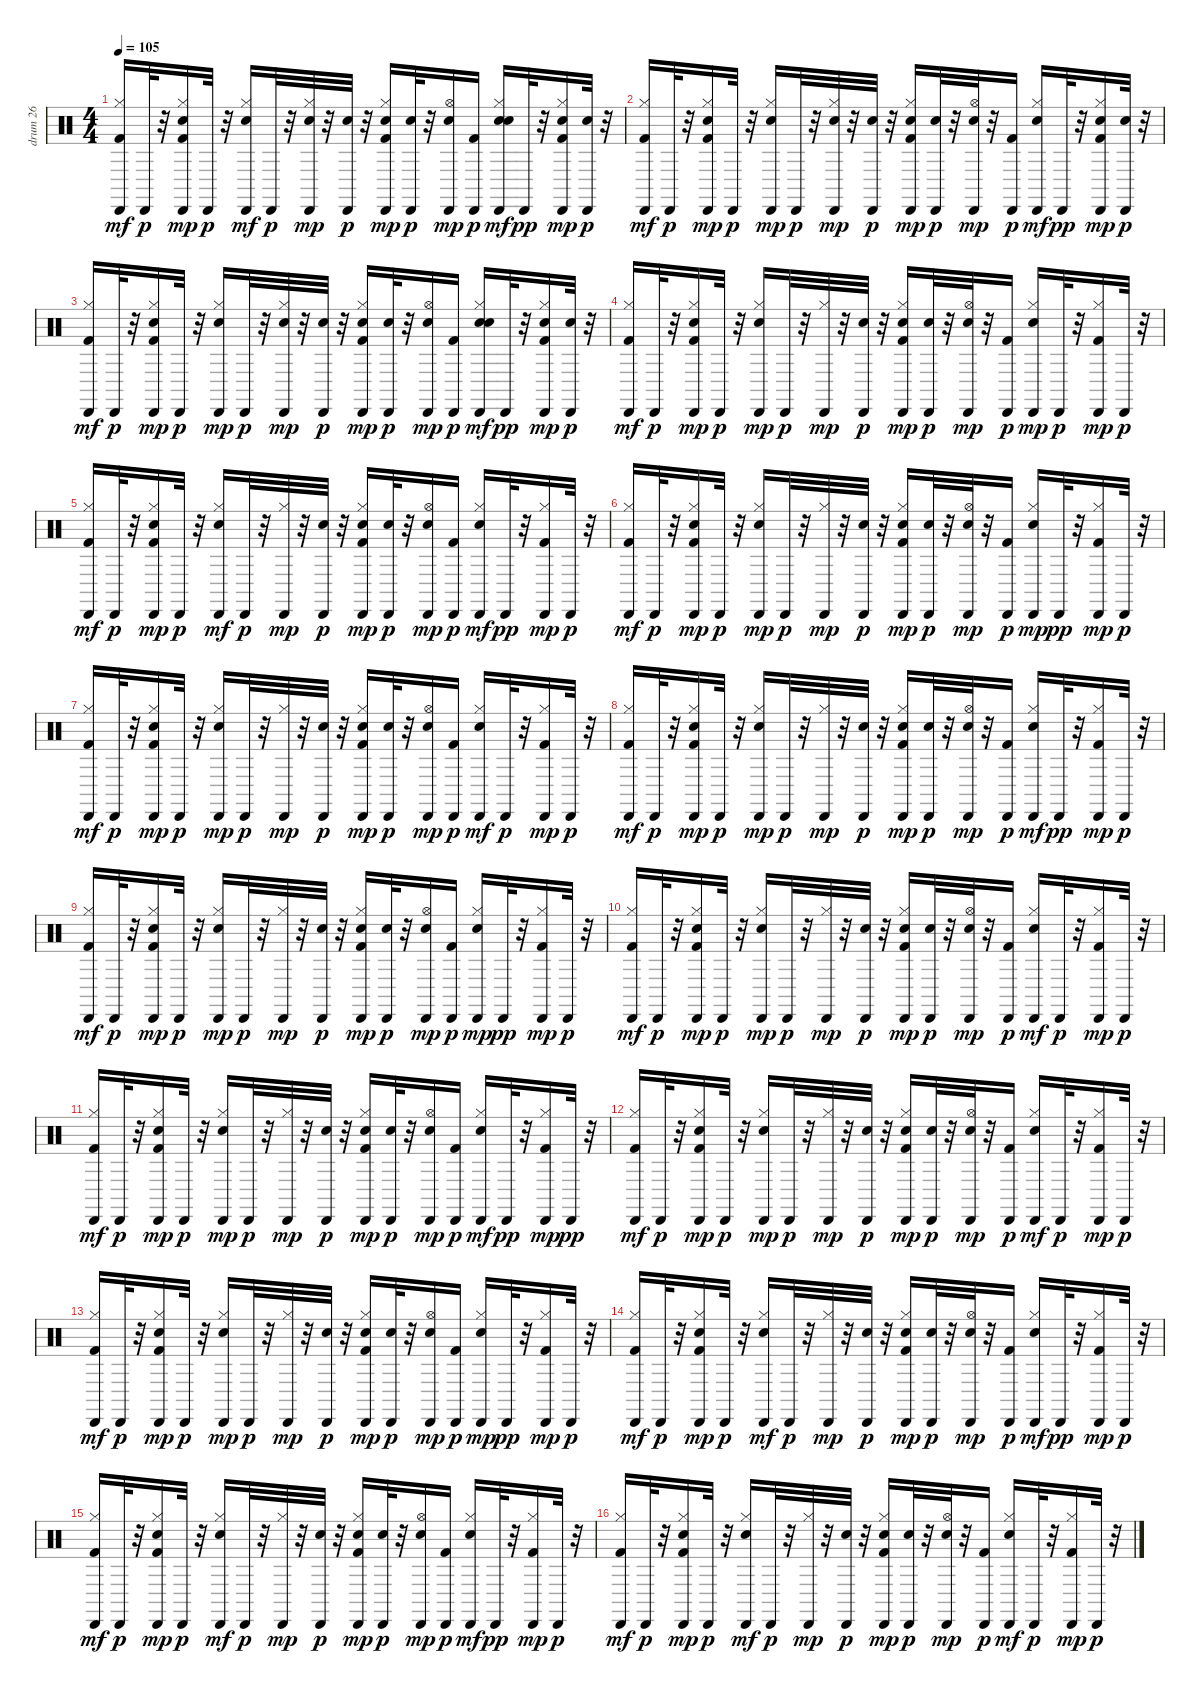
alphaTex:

\track ("drum 26" "drum 26") {instrument percussion}
\staff {score}
\articulation defaults
\ts (4 4)
\tempo 105
\clef neutral
\ks c
("Kick (hit) 2" "Hi-Hat (closed)" "Cabasa (hit)").16{dy mf} "Cabasa (hit)".32{dy p} r.32 ("Metronome (bell)" "Kick (hit) 2" "Hi-Hat (closed)" "Cabasa (hit)").16{dy mp} "Cabasa (hit)".32{dy p} r.32 ("Snare (hit) 2" "Hi-Hat (closed)" "Cabasa (hit)").16{dy mf} "Cabasa (hit)".32{dy p} r.32 ("Electric Snare (hit)" "Hi-Hat (closed)" "Cabasa (hit)").32{dy mp} r.32 ("Electric Snare (hit)" "Cabasa (hit)").32{dy p} r.32 ("Metronome (bell)" "Kick (hit) 2" "Hi-Hat (closed)" "Cabasa (hit)").16{dy mp} ("Electric Snare (hit)" "Cabasa (hit)").32{dy p} r.32 ("Electric Snare (hit)" "Hi-Hat (open)" "Cabasa (hit)").16{dy mp} ("Kick (hit) 2" "Cabasa (hit)").16{dy p} ("Snare (hit) 2" "Electric Snare (hit)" "Hi-Hat (closed)" "Cabasa (hit)").16{dy mf} "Cabasa (hit)".32{dy pp} r.32 ("Kick (hit) 2" "Electric Snare (hit)" "Hi-Hat (closed)" "Cabasa (hit)").16{dy mp} ("Electric Snare (hit)" "Cabasa (hit)").32{dy p} r.32 |
("Kick (hit) 2" "Hi-Hat (closed)" "Cabasa (hit)").16{dy mf} "Cabasa (hit)".32{dy p} r.32 ("Metronome (bell)" "Kick (hit) 2" "Hi-Hat (closed)" "Cabasa (hit)").16{dy mp} "Cabasa (hit)".32{dy p} r.32 ("Snare (hit) 2" "Hi-Hat (closed)" "Cabasa (hit)").16{dy mp} "Cabasa (hit)".32{dy p} r.32 ("Electric Snare (hit)" "Hi-Hat (closed)" "Cabasa (hit)").32{dy mp} r.32 ("Electric Snare (hit)" "Cabasa (hit)").32{dy p} r.32 ("Metronome (bell)" "Kick (hit) 2" "Hi-Hat (closed)" "Cabasa (hit)").16{dy mp} ("Electric Snare (hit)" "Cabasa (hit)").32{dy p} r.32 ("Electric Snare (hit)" "Hi-Hat (open)" "Cabasa (hit)").32{dy mp} r.32 ("Kick (hit) 2" "Cabasa (hit)").16{dy p} ("Snare (hit) 2" "Hi-Hat (closed)" "Cabasa (hit)").16{dy mf} "Cabasa (hit)".32{dy pp} r.32 ("Kick (hit) 2" "Electric Snare (hit)" "Hi-Hat (closed)" "Cabasa (hit)").16{dy mp} ("Electric Snare (hit)" "Cabasa (hit)").32{dy p} r.32 |
("Kick (hit) 2" "Hi-Hat (closed)" "Cabasa (hit)").16{dy mf} "Cabasa (hit)".32{dy p} r.32 ("Metronome (bell)" "Kick (hit) 2" "Hi-Hat (closed)" "Cabasa (hit)").16{dy mp} "Cabasa (hit)".32{dy p} r.32 ("Snare (hit) 2" "Hi-Hat (closed)" "Cabasa (hit)").16{dy mp} "Cabasa (hit)".32{dy p} r.32 ("Electric Snare (hit)" "Hi-Hat (closed)" "Cabasa (hit)").32{dy mp} r.32 ("Electric Snare (hit)" "Cabasa (hit)").32{dy p} r.32 ("Metronome (bell)" "Kick (hit) 2" "Hi-Hat (closed)" "Cabasa (hit)").16{dy mp} ("Electric Snare (hit)" "Cabasa (hit)").32{dy p} r.32 ("Electric Snare (hit)" "Hi-Hat (open)" "Cabasa (hit)").16{dy mp} ("Kick (hit) 2" "Cabasa (hit)").16{dy p} ("Snare (hit) 2" "Electric Snare (hit)" "Hi-Hat (closed)" "Cabasa (hit)").16{dy mf} "Cabasa (hit)".32{dy pp} r.32 ("Kick (hit) 2" "Electric Snare (hit)" "Hi-Hat (closed)" "Cabasa (hit)").16{dy mp} ("Electric Snare (hit)" "Cabasa (hit)").32{dy p} r.32 |
("Kick (hit) 2" "Hi-Hat (closed)" "Cabasa (hit)").16{dy mf} "Cabasa (hit)".32{dy p} r.32 ("Metronome (bell)" "Kick (hit) 2" "Hi-Hat (closed)" "Cabasa (hit)").16{dy mp} "Cabasa (hit)".32{dy p} r.32 ("Snare (hit) 2" "Hi-Hat (closed)" "Cabasa (hit)").16{dy mp} "Cabasa (hit)".32{dy p} r.32 ("Hi-Hat (closed)" "Cabasa (hit)").32{dy mp} r.32 ("Electric Snare (hit)" "Cabasa (hit)").32{dy p} r.32 ("Metronome (bell)" "Kick (hit) 2" "Hi-Hat (closed)" "Cabasa (hit)").16{dy mp} ("Electric Snare (hit)" "Cabasa (hit)").32{dy p} r.32 ("Electric Snare (hit)" "Hi-Hat (open)" "Cabasa (hit)").32{dy mp} r.32 ("Kick (hit) 2" "Cabasa (hit)").16{dy p} ("Snare (hit) 2" "Hi-Hat (closed)" "Cabasa (hit)").16{dy mp} "Cabasa (hit)".32{dy p} r.32 ("Kick (hit) 2" "Hi-Hat (closed)" "Cabasa (hit)").16{dy mp} "Cabasa (hit)".32{dy p} r.32 |
("Kick (hit) 2" "Hi-Hat (closed)" "Cabasa (hit)").16{dy mf} "Cabasa (hit)".32{dy p} r.32 ("Metronome (bell)" "Kick (hit) 2" "Hi-Hat (closed)" "Cabasa (hit)").16{dy mp} "Cabasa (hit)".32{dy p} r.32 ("Snare (hit) 2" "Hi-Hat (closed)" "Cabasa (hit)").16{dy mf} "Cabasa (hit)".32{dy p} r.32 ("Hi-Hat (closed)" "Cabasa (hit)").32{dy mp} r.32 ("Electric Snare (hit)" "Cabasa (hit)").32{dy p} r.32 ("Metronome (bell)" "Kick (hit) 2" "Hi-Hat (closed)" "Cabasa (hit)").16{dy mp} ("Electric Snare (hit)" "Cabasa (hit)").32{dy p} r.32 ("Electric Snare (hit)" "Hi-Hat (open)" "Cabasa (hit)").16{dy mp} ("Kick (hit) 2" "Cabasa (hit)").16{dy p} ("Snare (hit) 2" "Hi-Hat (closed)" "Cabasa (hit)").16{dy mf} "Cabasa (hit)".32{dy pp} r.32 ("Kick (hit) 2" "Hi-Hat (closed)" "Cabasa (hit)").16{dy mp} "Cabasa (hit)".32{dy p} r.32 |
("Kick (hit) 2" "Hi-Hat (closed)" "Cabasa (hit)").16{dy mf} "Cabasa (hit)".32{dy p} r.32 ("Metronome (bell)" "Kick (hit) 2" "Hi-Hat (closed)" "Cabasa (hit)").16{dy mp} "Cabasa (hit)".32{dy p} r.32 ("Snare (hit) 2" "Hi-Hat (closed)" "Cabasa (hit)").16{dy mp} "Cabasa (hit)".32{dy p} r.32 ("Hi-Hat (closed)" "Cabasa (hit)").32{dy mp} r.32 ("Electric Snare (hit)" "Cabasa (hit)").32{dy p} r.32 ("Metronome (bell)" "Kick (hit) 2" "Hi-Hat (closed)" "Cabasa (hit)").16{dy mp} ("Electric Snare (hit)" "Cabasa (hit)").32{dy p} r.32 ("Electric Snare (hit)" "Hi-Hat (open)" "Cabasa (hit)").32{dy mp} r.32 ("Kick (hit) 2" "Cabasa (hit)").16{dy p} ("Snare (hit) 2" "Hi-Hat (closed)" "Cabasa (hit)").16{dy mp} "Cabasa (hit)".32{dy pp} r.32 ("Kick (hit) 2" "Hi-Hat (closed)" "Cabasa (hit)").16{dy mp} "Cabasa (hit)".32{dy p} r.32 |
("Kick (hit) 2" "Hi-Hat (closed)" "Cabasa (hit)").16{dy mf} "Cabasa (hit)".32{dy p} r.32 ("Metronome (bell)" "Kick (hit) 2" "Hi-Hat (closed)" "Cabasa (hit)").16{dy mp} "Cabasa (hit)".32{dy p} r.32 ("Snare (hit) 2" "Hi-Hat (closed)" "Cabasa (hit)").16{dy mp} "Cabasa (hit)".32{dy p} r.32 ("Hi-Hat (closed)" "Cabasa (hit)").32{dy mp} r.32 ("Electric Snare (hit)" "Cabasa (hit)").32{dy p} r.32 ("Metronome (bell)" "Kick (hit) 2" "Hi-Hat (closed)" "Cabasa (hit)").16{dy mp} ("Electric Snare (hit)" "Cabasa (hit)").32{dy p} r.32 ("Electric Snare (hit)" "Hi-Hat (open)" "Cabasa (hit)").16{dy mp} ("Kick (hit) 2" "Cabasa (hit)").16{dy p} ("Snare (hit) 2" "Hi-Hat (closed)" "Cabasa (hit)").16{dy mf} "Cabasa (hit)".32{dy p} r.32 ("Kick (hit) 2" "Hi-Hat (closed)" "Cabasa (hit)").16{dy mp} "Cabasa (hit)".32{dy p} r.32 |
("Kick (hit) 2" "Hi-Hat (closed)" "Cabasa (hit)").16{dy mf} "Cabasa (hit)".32{dy p} r.32 ("Metronome (bell)" "Kick (hit) 2" "Hi-Hat (closed)" "Cabasa (hit)").16{dy mp} "Cabasa (hit)".32{dy p} r.32 ("Snare (hit) 2" "Hi-Hat (closed)" "Cabasa (hit)").16{dy mp} "Cabasa (hit)".32{dy p} r.32 ("Hi-Hat (closed)" "Cabasa (hit)").32{dy mp} r.32 ("Electric Snare (hit)" "Cabasa (hit)").32{dy p} r.32 ("Metronome (bell)" "Kick (hit) 2" "Hi-Hat (closed)" "Cabasa (hit)").16{dy mp} ("Electric Snare (hit)" "Cabasa (hit)").32{dy p} r.32 ("Electric Snare (hit)" "Hi-Hat (open)" "Cabasa (hit)").32{dy mp} r.32 ("Kick (hit) 2" "Cabasa (hit)").16{dy p} ("Snare (hit) 2" "Hi-Hat (closed)" "Cabasa (hit)").16{dy mf} "Cabasa (hit)".32{dy pp} r.32 ("Kick (hit) 2" "Hi-Hat (closed)" "Cabasa (hit)").16{dy mp} "Cabasa (hit)".32{dy p} r.32 |
("Kick (hit) 2" "Hi-Hat (closed)" "Cabasa (hit)").16{dy mf} "Cabasa (hit)".32{dy p} r.32 ("Metronome (bell)" "Kick (hit) 2" "Hi-Hat (closed)" "Cabasa (hit)").16{dy mp} "Cabasa (hit)".32{dy p} r.32 ("Snare (hit) 2" "Hi-Hat (closed)" "Cabasa (hit)").16{dy mp} "Cabasa (hit)".32{dy p} r.32 ("Hi-Hat (closed)" "Cabasa (hit)").32{dy mp} r.32 ("Electric Snare (hit)" "Cabasa (hit)").32{dy p} r.32 ("Metronome (bell)" "Kick (hit) 2" "Hi-Hat (closed)" "Cabasa (hit)").16{dy mp} ("Electric Snare (hit)" "Cabasa (hit)").32{dy p} r.32 ("Electric Snare (hit)" "Hi-Hat (open)" "Cabasa (hit)").16{dy mp} ("Kick (hit) 2" "Cabasa (hit)").16{dy p} ("Snare (hit) 2" "Hi-Hat (closed)" "Cabasa (hit)").16{dy mp} "Cabasa (hit)".32{dy pp} r.32 ("Kick (hit) 2" "Hi-Hat (closed)" "Cabasa (hit)").16{dy mp} "Cabasa (hit)".32{dy p} r.32 |
("Kick (hit) 2" "Hi-Hat (closed)" "Cabasa (hit)").16{dy mf} "Cabasa (hit)".32{dy p} r.32 ("Metronome (bell)" "Kick (hit) 2" "Hi-Hat (closed)" "Cabasa (hit)").16{dy mp} "Cabasa (hit)".32{dy p} r.32 ("Snare (hit) 2" "Hi-Hat (closed)" "Cabasa (hit)").16{dy mp} "Cabasa (hit)".32{dy p} r.32 ("Hi-Hat (closed)" "Cabasa (hit)").32{dy mp} r.32 ("Electric Snare (hit)" "Cabasa (hit)").32{dy p} r.32 ("Metronome (bell)" "Kick (hit) 2" "Hi-Hat (closed)" "Cabasa (hit)").16{dy mp} ("Electric Snare (hit)" "Cabasa (hit)").32{dy p} r.32 ("Electric Snare (hit)" "Hi-Hat (open)" "Cabasa (hit)").32{dy mp} r.32 ("Kick (hit) 2" "Cabasa (hit)").16{dy p} ("Snare (hit) 2" "Hi-Hat (closed)" "Cabasa (hit)").16{dy mf} "Cabasa (hit)".32{dy p} r.32 ("Kick (hit) 2" "Hi-Hat (closed)" "Cabasa (hit)").16{dy mp} "Cabasa (hit)".32{dy p} r.32 |
("Kick (hit) 2" "Hi-Hat (closed)" "Cabasa (hit)").16{dy mf} "Cabasa (hit)".32{dy p} r.32 ("Metronome (bell)" "Kick (hit) 2" "Hi-Hat (closed)" "Cabasa (hit)").16{dy mp} "Cabasa (hit)".32{dy p} r.32 ("Snare (hit) 2" "Hi-Hat (closed)" "Cabasa (hit)").16{dy mp} "Cabasa (hit)".32{dy p} r.32 ("Hi-Hat (closed)" "Cabasa (hit)").32{dy mp} r.32 ("Electric Snare (hit)" "Cabasa (hit)").32{dy p} r.32 ("Metronome (bell)" "Kick (hit) 2" "Hi-Hat (closed)" "Cabasa (hit)").16{dy mp} ("Electric Snare (hit)" "Cabasa (hit)").32{dy p} r.32 ("Electric Snare (hit)" "Hi-Hat (open)" "Cabasa (hit)").16{dy mp} ("Kick (hit) 2" "Cabasa (hit)").16{dy p} ("Snare (hit) 2" "Hi-Hat (closed)" "Cabasa (hit)").16{dy mf} "Cabasa (hit)".32{dy pp} r.32 ("Kick (hit) 2" "Hi-Hat (closed)" "Cabasa (hit)").16{dy mp} "Cabasa (hit)".32{dy pp} r.32 |
("Kick (hit) 2" "Hi-Hat (closed)" "Cabasa (hit)").16{dy mf} "Cabasa (hit)".32{dy p} r.32 ("Metronome (bell)" "Kick (hit) 2" "Hi-Hat (closed)" "Cabasa (hit)").16{dy mp} "Cabasa (hit)".32{dy p} r.32 ("Snare (hit) 2" "Hi-Hat (closed)" "Cabasa (hit)").16{dy mp} "Cabasa (hit)".32{dy p} r.32 ("Hi-Hat (closed)" "Cabasa (hit)").32{dy mp} r.32 ("Electric Snare (hit)" "Cabasa (hit)").32{dy p} r.32 ("Metronome (bell)" "Kick (hit) 2" "Hi-Hat (closed)" "Cabasa (hit)").16{dy mp} ("Electric Snare (hit)" "Cabasa (hit)").32{dy p} r.32 ("Electric Snare (hit)" "Hi-Hat (open)" "Cabasa (hit)").32{dy mp} r.32 ("Kick (hit) 2" "Cabasa (hit)").16{dy p} ("Snare (hit) 2" "Hi-Hat (closed)" "Cabasa (hit)").16{dy mf} "Cabasa (hit)".32{dy p} r.32 ("Kick (hit) 2" "Hi-Hat (closed)" "Cabasa (hit)").16{dy mp} "Cabasa (hit)".32{dy p} r.32 |
("Kick (hit) 2" "Hi-Hat (closed)" "Cabasa (hit)").16{dy mf} "Cabasa (hit)".32{dy p} r.32 ("Metronome (bell)" "Kick (hit) 2" "Hi-Hat (closed)" "Cabasa (hit)").16{dy mp} "Cabasa (hit)".32{dy p} r.32 ("Snare (hit) 2" "Hi-Hat (closed)" "Cabasa (hit)").16{dy mp} "Cabasa (hit)".32{dy p} r.32 ("Hi-Hat (closed)" "Cabasa (hit)").32{dy mp} r.32 ("Electric Snare (hit)" "Cabasa (hit)").32{dy p} r.32 ("Metronome (bell)" "Kick (hit) 2" "Hi-Hat (closed)" "Cabasa (hit)").16{dy mp} ("Electric Snare (hit)" "Cabasa (hit)").32{dy p} r.32 ("Electric Snare (hit)" "Hi-Hat (open)" "Cabasa (hit)").16{dy mp} ("Kick (hit) 2" "Cabasa (hit)").16{dy p} ("Snare (hit) 2" "Hi-Hat (closed)" "Cabasa (hit)").16{dy mp} "Cabasa (hit)".32{dy pp} r.32 ("Kick (hit) 2" "Hi-Hat (closed)" "Cabasa (hit)").16{dy mp} "Cabasa (hit)".32{dy p} r.32 |
("Kick (hit) 2" "Hi-Hat (closed)" "Cabasa (hit)").16{dy mf} "Cabasa (hit)".32{dy p} r.32 ("Metronome (bell)" "Kick (hit) 2" "Hi-Hat (closed)" "Cabasa (hit)").16{dy mp} "Cabasa (hit)".32{dy p} r.32 ("Snare (hit) 2" "Hi-Hat (closed)" "Cabasa (hit)").16{dy mf} "Cabasa (hit)".32{dy p} r.32 ("Hi-Hat (closed)" "Cabasa (hit)").32{dy mp} r.32 ("Electric Snare (hit)" "Cabasa (hit)").32{dy p} r.32 ("Metronome (bell)" "Kick (hit) 2" "Hi-Hat (closed)" "Cabasa (hit)").16{dy mp} ("Electric Snare (hit)" "Cabasa (hit)").32{dy p} r.32 ("Electric Snare (hit)" "Hi-Hat (open)" "Cabasa (hit)").32{dy mp} r.32 ("Kick (hit) 2" "Cabasa (hit)").16{dy p} ("Snare (hit) 2" "Hi-Hat (closed)" "Cabasa (hit)").16{dy mf} "Cabasa (hit)".32{dy pp} r.32 ("Kick (hit) 2" "Hi-Hat (closed)" "Cabasa (hit)").16{dy mp} "Cabasa (hit)".32{dy p} r.32 |
("Kick (hit) 2" "Hi-Hat (closed)" "Cabasa (hit)").16{dy mf} "Cabasa (hit)".32{dy p} r.32 ("Metronome (bell)" "Kick (hit) 2" "Hi-Hat (closed)" "Cabasa (hit)").16{dy mp} "Cabasa (hit)".32{dy p} r.32 ("Snare (hit) 2" "Hi-Hat (closed)" "Cabasa (hit)").16{dy mf} "Cabasa (hit)".32{dy p} r.32 ("Hi-Hat (closed)" "Cabasa (hit)").32{dy mp} r.32 ("Electric Snare (hit)" "Cabasa (hit)").32{dy p} r.32 ("Metronome (bell)" "Kick (hit) 2" "Hi-Hat (closed)" "Cabasa (hit)").16{dy mp} ("Electric Snare (hit)" "Cabasa (hit)").32{dy p} r.32 ("Electric Snare (hit)" "Hi-Hat (open)" "Cabasa (hit)").16{dy mp} ("Kick (hit) 2" "Cabasa (hit)").16{dy p} ("Snare (hit) 2" "Hi-Hat (closed)" "Cabasa (hit)").16{dy mf} "Cabasa (hit)".32{dy pp} r.32 ("Kick (hit) 2" "Hi-Hat (closed)" "Cabasa (hit)").16{dy mp} "Cabasa (hit)".32{dy p} r.32 |
("Kick (hit) 2" "Hi-Hat (closed)" "Cabasa (hit)").16{dy mf} "Cabasa (hit)".32{dy p} r.32 ("Metronome (bell)" "Kick (hit) 2" "Hi-Hat (closed)" "Cabasa (hit)").16{dy mp} "Cabasa (hit)".32{dy p} r.32 ("Snare (hit) 2" "Hi-Hat (closed)" "Cabasa (hit)").16{dy mf} "Cabasa (hit)".32{dy p} r.32 ("Hi-Hat (closed)" "Cabasa (hit)").32{dy mp} r.32 ("Electric Snare (hit)" "Cabasa (hit)").32{dy p} r.32 ("Metronome (bell)" "Kick (hit) 2" "Hi-Hat (closed)" "Cabasa (hit)").16{dy mp} ("Electric Snare (hit)" "Cabasa (hit)").32{dy p} r.32 ("Electric Snare (hit)" "Hi-Hat (open)" "Cabasa (hit)").32{dy mp} r.32 ("Kick (hit) 2" "Cabasa (hit)").16{dy p} ("Snare (hit) 2" "Hi-Hat (closed)" "Cabasa (hit)").16{dy mf} "Cabasa (hit)".32{dy p} r.32 ("Kick (hit) 2" "Hi-Hat (closed)" "Cabasa (hit)").16{dy mp} "Cabasa (hit)".32{dy p} r.32
